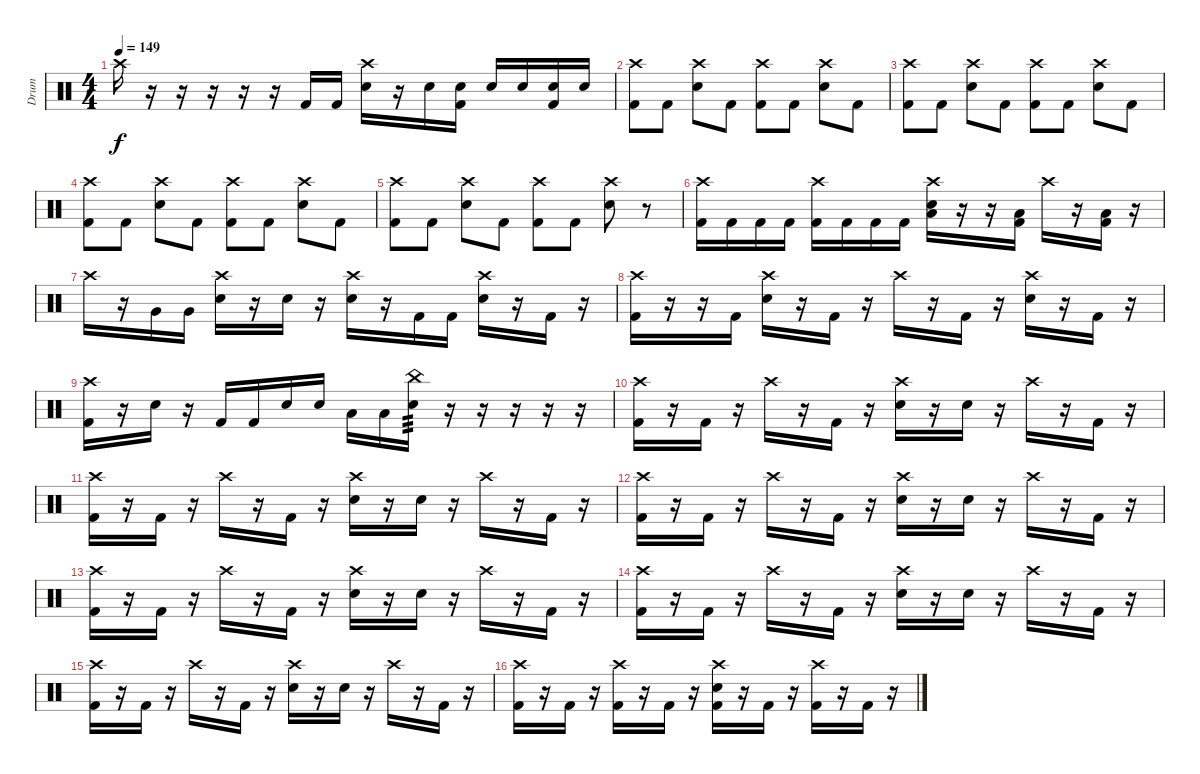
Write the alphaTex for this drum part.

\track ("Drum" "Drum") {instrument percussion}
\staff {score}
\articulation defaults
\ts (4 4)
\tempo 149
\clef neutral
\ks c "Crash high (hit)".16{dy f}
r.16 r.16 r.16 r.16 r.16 "Kick (hit) 2".16 "Kick (hit) 2".16 ("Crash high (hit)" "Electric Snare (hit)").16 r.16 "Electric Snare (hit)".16 ("Electric Snare (hit)" "Kick (hit) 2").16 "Electric Snare (hit)".16 "Electric Snare (hit)".16 ("Electric Snare (hit)" "Kick (hit) 2").16 "Electric Snare (hit)".16 |
("Crash high (hit)" "Kick (hit) 2").8 "Kick (hit) 2".8 ("Crash high (hit)" "Electric Snare (hit)").8 "Kick (hit) 2".8 ("Crash high (hit)" "Kick (hit) 2").8 "Kick (hit) 2".8 ("Crash high (hit)" "Electric Snare (hit)").8 "Kick (hit) 2".8 |
("Crash high (hit)" "Kick (hit) 2").8 "Kick (hit) 2".8 ("Crash high (hit)" "Electric Snare (hit)").8 "Kick (hit) 2".8 ("Crash high (hit)" "Kick (hit) 2").8 "Kick (hit) 2".8 ("Crash high (hit)" "Electric Snare (hit)").8 "Kick (hit) 2".8 |
("Crash high (hit)" "Kick (hit) 2").8 "Kick (hit) 2".8 ("Crash high (hit)" "Electric Snare (hit)").8 "Kick (hit) 2".8 ("Crash high (hit)" "Kick (hit) 2").8 "Kick (hit) 2".8 ("Crash high (hit)" "Electric Snare (hit)").8 "Kick (hit) 2".8 |
("Crash high (hit)" "Kick (hit) 2").8 "Kick (hit) 2".8 ("Crash high (hit)" "Electric Snare (hit)").8 "Kick (hit) 2".8 ("Crash high (hit)" "Kick (hit) 2").8 "Kick (hit) 2".8 ("Crash high (hit)" "Electric Snare (hit)").8 r.8 |
("Crash high (hit)" "Kick (hit) 2").16 "Kick (hit) 2".16 "Kick (hit) 2".16 "Kick (hit) 2".16 ("Crash high (hit)" "Kick (hit) 2").16 "Kick (hit) 2".16 "Kick (hit) 2".16 "Kick (hit) 2".16 ("Crash high (hit)" "Electric Snare (hit)" "Low Floor Tom (hit)").16 r.16 r.16 ("Low Floor Tom (hit)" "Kick (hit) 2").16 "Crash high (hit)".16 r.16 ("Low Floor Tom (hit)" "Kick (hit) 2").16 r.16 |
"Crash high (hit)".16 r.16 "Very Low Tom (hit)".16 "Very Low Tom (hit)".16 ("Crash high (hit)" "Electric Snare (hit)").16 r.16 "Electric Snare (hit)".16 r.16 ("Crash high (hit)" "Electric Snare (hit)").16 r.16 "Kick (hit) 2".16 "Kick (hit) 2".16 ("Crash high (hit)" "Electric Snare (hit)").16 r.16 "Kick (hit) 2".16 r.16 |
("Crash high (hit)" "Kick (hit) 2").16 r.16 r.16 "Kick (hit) 2".16 ("Crash high (hit)" "Electric Snare (hit)").16 r.16 "Kick (hit) 2".16 r.16 "Crash high (hit)".16 r.16 "Kick (hit) 2".16 r.16 ("Crash high (hit)" "Electric Snare (hit)").16 r.16 "Kick (hit) 2".16 r.16 |
("Crash high (hit)" "Kick (hit) 2").16 r.16 "Electric Snare (hit)".16 r.16 "Kick (hit) 2".16 "Kick (hit) 2".16 "Electric Snare (hit)".16 "Electric Snare (hit)".16 "Low Floor Tom (hit)".16 "Low Floor Tom (hit)".16 ("China (hit)" "Electric Snare (hit)").16{tp 3} r.16 r.16 r.16 r.16 r.16 |
("Crash high (hit)" "Kick (hit) 2").16 r.16 "Kick (hit) 2".16 r.16 "Crash high (hit)".16 r.16 "Kick (hit) 2".16 r.16 ("Crash high (hit)" "Electric Snare (hit)").16 r.16 "Electric Snare (hit)".16 r.16 "Crash high (hit)".16 r.16 "Kick (hit) 2".16 r.16 |
("Crash high (hit)" "Kick (hit) 2").16 r.16 "Kick (hit) 2".16 r.16 "Crash high (hit)".16 r.16 "Kick (hit) 2".16 r.16 ("Crash high (hit)" "Electric Snare (hit)").16 r.16 "Electric Snare (hit)".16 r.16 "Crash high (hit)".16 r.16 "Kick (hit) 2".16 r.16 |
("Crash high (hit)" "Kick (hit) 2").16 r.16 "Kick (hit) 2".16 r.16 "Crash high (hit)".16 r.16 "Kick (hit) 2".16 r.16 ("Crash high (hit)" "Electric Snare (hit)").16 r.16 "Electric Snare (hit)".16 r.16 "Crash high (hit)".16 r.16 "Kick (hit) 2".16 r.16 |
("Crash high (hit)" "Kick (hit) 2").16 r.16 "Kick (hit) 2".16 r.16 "Crash high (hit)".16 r.16 "Kick (hit) 2".16 r.16 ("Crash high (hit)" "Electric Snare (hit)").16 r.16 "Electric Snare (hit)".16 r.16 "Crash high (hit)".16 r.16 "Kick (hit) 2".16 r.16 |
("Crash high (hit)" "Kick (hit) 2").16 r.16 "Kick (hit) 2".16 r.16 "Crash high (hit)".16 r.16 "Kick (hit) 2".16 r.16 ("Crash high (hit)" "Electric Snare (hit)").16 r.16 "Electric Snare (hit)".16 r.16 "Crash high (hit)".16 r.16 "Kick (hit) 2".16 r.16 |
("Crash high (hit)" "Kick (hit) 2").16 r.16 "Kick (hit) 2".16 r.16 "Crash high (hit)".16 r.16 "Kick (hit) 2".16 r.16 ("Crash high (hit)" "Electric Snare (hit)").16 r.16 "Electric Snare (hit)".16 r.16 "Crash high (hit)".16 r.16 "Kick (hit) 2".16 r.16 |
("Crash high (hit)" "Kick (hit) 2").16 r.16 "Kick (hit) 2".16 r.16 ("Crash high (hit)" "Kick (hit) 2").16 r.16 "Kick (hit) 2".16 r.16 ("Crash high (hit)" "Electric Snare (hit)" "Kick (hit) 2").16 r.16 "Kick (hit) 2".16 r.16 ("Crash high (hit)" "Kick (hit) 2").16 r.16 "Kick (hit) 2".16 r.16
